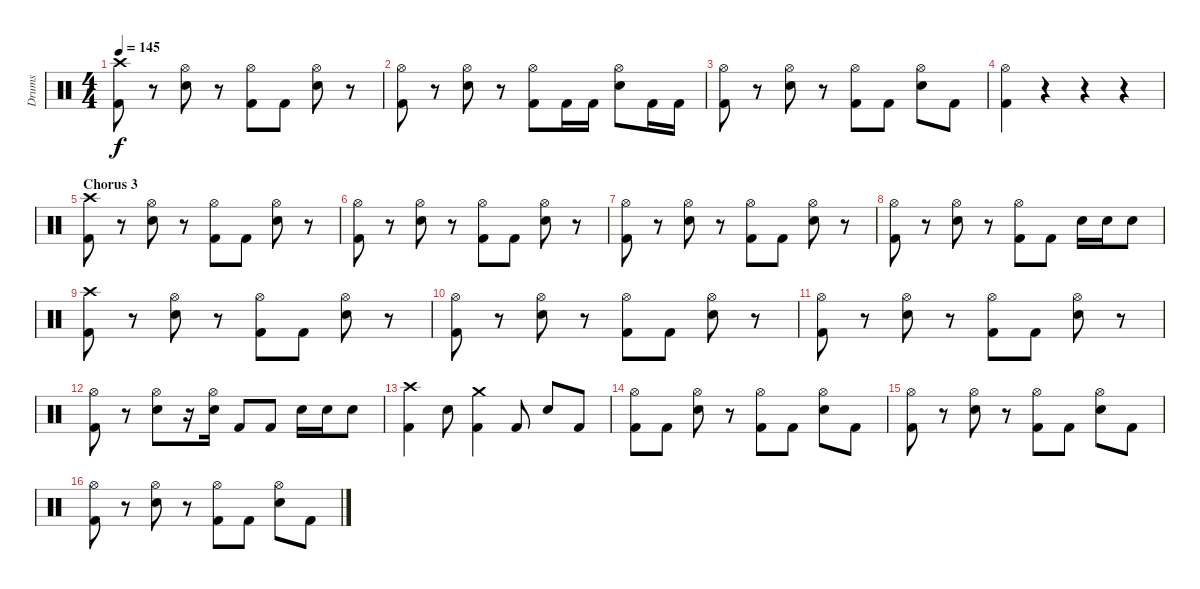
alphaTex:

\track ("Drums" "Drums") {instrument percussion}
\staff {score}
\articulation defaults
\ts (4 4)
\tempo 145
\clef neutral
\ks c
("Crash high (hit)" "Kick (hit) 2").8{dy f} r.8 ("Hi-Hat (open)" "Snare (hit) 2").8 r.8 ("Hi-Hat (open)" "Kick (hit) 2").8 "Kick (hit) 2".8 ("Hi-Hat (open)" "Snare (hit) 2").8 r.8 |
("Hi-Hat (open)" "Kick (hit) 2").8 r.8 ("Hi-Hat (open)" "Snare (hit) 2").8 r.8 ("Hi-Hat (open)" "Kick (hit) 2").8 "Kick (hit) 2".16 "Kick (hit) 2".16 ("Hi-Hat (open)" "Snare (hit) 2").8 "Kick (hit) 2".16 "Kick (hit) 2".16 |
("Hi-Hat (open)" "Kick (hit) 2").8 r.8 ("Hi-Hat (open)" "Snare (hit) 2").8 r.8 ("Hi-Hat (open)" "Kick (hit) 2").8 "Kick (hit) 2".8 ("Hi-Hat (open)" "Snare (hit) 2").8 "Kick (hit) 2".8 |
("Hi-Hat (open)" "Kick (hit) 2").4 r.4 r.4 r.4 |
\section ("" "Chorus 3")
("Crash high (hit)" "Kick (hit) 2").8 r.8 ("Hi-Hat (open)" "Snare (hit) 2").8 r.8 ("Hi-Hat (open)" "Kick (hit) 2").8 "Kick (hit) 2".8 ("Hi-Hat (open)" "Snare (hit) 2").8 r.8 |
("Hi-Hat (open)" "Kick (hit) 2").8 r.8 ("Hi-Hat (open)" "Snare (hit) 2").8 r.8 ("Hi-Hat (open)" "Kick (hit) 2").8 "Kick (hit) 2".8 ("Hi-Hat (open)" "Snare (hit) 2").8 r.8 |
("Hi-Hat (open)" "Kick (hit) 2").8 r.8 ("Hi-Hat (open)" "Snare (hit) 2").8 r.8 ("Hi-Hat (open)" "Kick (hit) 2").8 "Kick (hit) 2".8 ("Hi-Hat (open)" "Snare (hit) 2").8 r.8 |
("Hi-Hat (open)" "Kick (hit) 2").8 r.8 ("Hi-Hat (open)" "Snare (hit) 2").8 r.8 ("Hi-Hat (open)" "Kick (hit) 2").8 "Kick (hit) 2".8 "Snare (hit) 2".16 "Snare (hit) 2".16 "Snare (hit) 2".8 |
("Crash high (hit)" "Kick (hit) 2").8 r.8 ("Hi-Hat (open)" "Snare (hit) 2").8 r.8 ("Hi-Hat (open)" "Kick (hit) 2").8 "Kick (hit) 2".8 ("Hi-Hat (open)" "Snare (hit) 2").8 r.8 |
("Hi-Hat (open)" "Kick (hit) 2").8 r.8 ("Hi-Hat (open)" "Snare (hit) 2").8 r.8 ("Hi-Hat (open)" "Kick (hit) 2").8 "Kick (hit) 2".8 ("Hi-Hat (open)" "Snare (hit) 2").8 r.8 |
("Hi-Hat (open)" "Kick (hit) 2").8 r.8 ("Hi-Hat (open)" "Snare (hit) 2").8 r.8 ("Hi-Hat (open)" "Kick (hit) 2").8 "Kick (hit) 2".8 ("Hi-Hat (open)" "Snare (hit) 2").8 r.8 |
("Hi-Hat (open)" "Kick (hit) 2").8 r.8 ("Hi-Hat (open)" "Snare (hit) 2").8 r.16 ("Hi-Hat (open)" "Snare (hit) 2").16 "Kick (hit) 2".8 "Kick (hit) 2".8 "Snare (hit) 2".16 "Snare (hit) 2".16 "Snare (hit) 2".8 |
("Crash high (hit)" "Kick (hit) 2").4 "Snare (hit) 2".8 ("Crash medium (hit)" "Kick (hit) 2").4 "Kick (hit) 2".8 "Snare (hit) 2".8 "Kick (hit) 2".8 |
("Hi-Hat (open)" "Kick (hit) 2").8 "Kick (hit) 2".8 ("Hi-Hat (open)" "Snare (hit) 2").8 r.8 ("Hi-Hat (open)" "Kick (hit) 2").8 "Kick (hit) 2".8 ("Hi-Hat (open)" "Snare (hit) 2").8 "Kick (hit) 2".8 |
("Hi-Hat (open)" "Kick (hit) 2").8 r.8 ("Hi-Hat (open)" "Snare (hit) 2").8 r.8 ("Hi-Hat (open)" "Kick (hit) 2").8 "Kick (hit) 2".8 ("Hi-Hat (open)" "Snare (hit) 2").8 "Kick (hit) 2".8 |
("Hi-Hat (open)" "Kick (hit) 2").8 r.8 ("Hi-Hat (open)" "Snare (hit) 2").8 r.8 ("Hi-Hat (open)" "Kick (hit) 2").8 "Kick (hit) 2".8 ("Hi-Hat (open)" "Snare (hit) 2").8 "Kick (hit) 2".8
